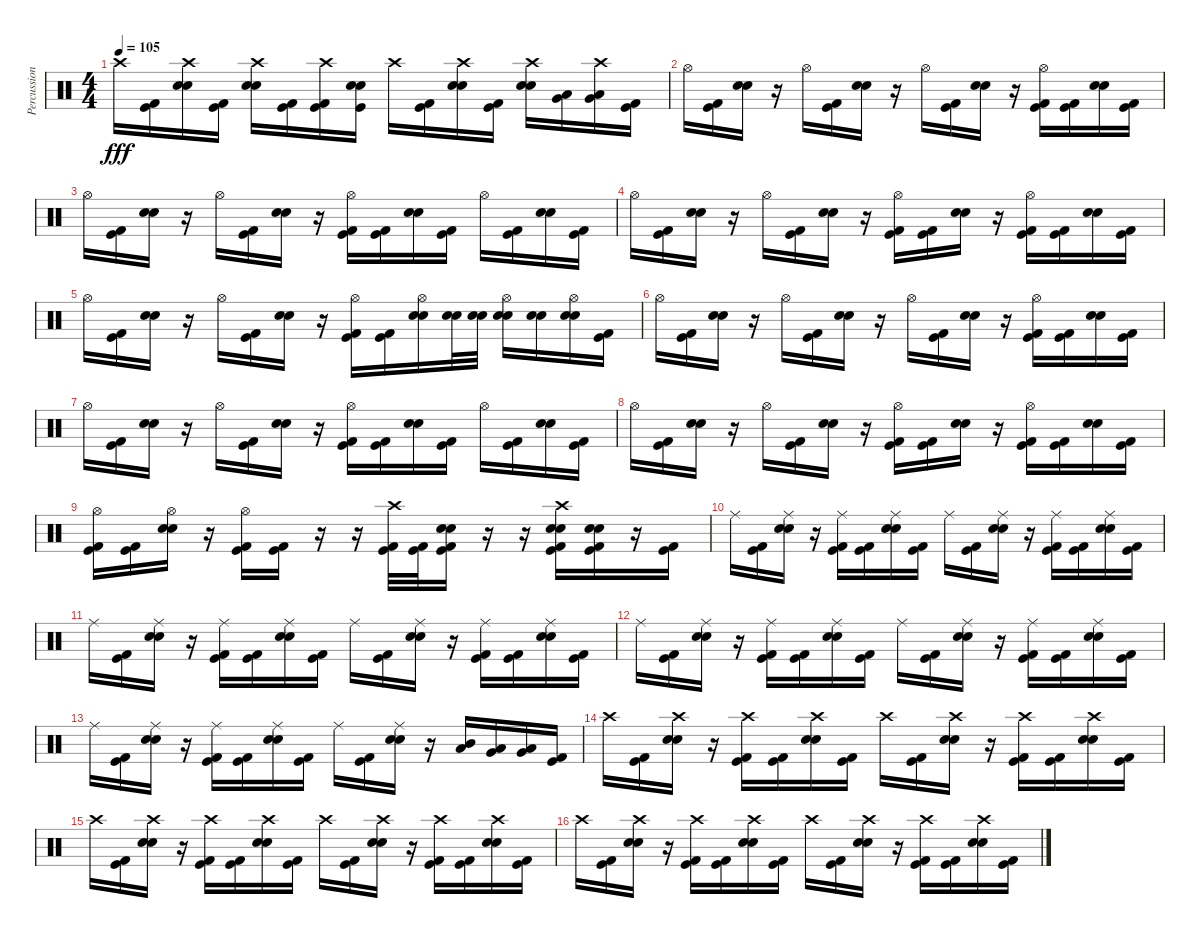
\track ("Percussion" "Percussion") {instrument percussion}
\staff {score}
\articulation defaults
\ts (4 4)
\tempo 105
\clef neutral
\ks c "Crash high (hit)".16{dy fff}
("Kick (hit)" "Kick (hit) 2").16 ("Crash high (hit)" "Snare (hit) 2" "Electric Snare (hit)").16 ("Kick (hit)" "Kick (hit) 2").16 ("Crash high (hit)" "Snare (hit) 2" "Electric Snare (hit)").16 ("Kick (hit)" "Kick (hit) 2").16 ("Kick (hit)" "Crash high (hit)" "Kick (hit) 2").16 ("Kick (hit)" "Snare (hit) 2" "Electric Snare (hit)").16 "Crash high (hit)".16 ("Kick (hit)" "Kick (hit) 2").16 ("Crash high (hit)" "Snare (hit) 2" "Electric Snare (hit)").16 ("Kick (hit)" "Kick (hit) 2").16 ("Crash high (hit)" "Snare (hit) 2" "Electric Snare (hit)").16 ("Low Tom (hit)" "Very Low Tom (hit)").16 ("Crash high (hit)" "Very Low Tom (hit)" "Low Floor Tom (hit)").16 ("Kick (hit)" "Kick (hit) 2").16 |
"Hi-Hat (open)".16 ("Kick (hit)" "Kick (hit) 2").16 ("Snare (hit) 2" "Electric Snare (hit)").16 r.16 "Hi-Hat (open)".16 ("Kick (hit)" "Kick (hit) 2").16 ("Snare (hit) 2" "Electric Snare (hit)").16 r.16 "Hi-Hat (open)".16 ("Kick (hit)" "Kick (hit) 2").16 ("Snare (hit) 2" "Electric Snare (hit)").16 r.16 ("Kick (hit)" "Hi-Hat (open)" "Kick (hit) 2").16 ("Kick (hit)" "Kick (hit) 2").16 ("Snare (hit) 2" "Electric Snare (hit)").16 ("Kick (hit)" "Kick (hit) 2").16 |
"Hi-Hat (open)".16 ("Kick (hit)" "Kick (hit) 2").16 ("Snare (hit) 2" "Electric Snare (hit)").16 r.16 "Hi-Hat (open)".16 ("Kick (hit)" "Kick (hit) 2").16 ("Snare (hit) 2" "Electric Snare (hit)").16 r.16 ("Kick (hit)" "Hi-Hat (open)" "Kick (hit) 2").16 ("Kick (hit)" "Kick (hit) 2").16 ("Snare (hit) 2" "Electric Snare (hit)").16 ("Kick (hit)" "Kick (hit) 2").16 "Hi-Hat (open)".16 ("Kick (hit)" "Kick (hit) 2").16 ("Snare (hit) 2" "Electric Snare (hit)").16 ("Kick (hit)" "Kick (hit) 2").16 |
"Hi-Hat (open)".16 ("Kick (hit)" "Kick (hit) 2").16 ("Snare (hit) 2" "Electric Snare (hit)").16 r.16 "Hi-Hat (open)".16 ("Kick (hit)" "Kick (hit) 2").16 ("Snare (hit) 2" "Electric Snare (hit)").16 r.16 ("Kick (hit)" "Hi-Hat (open)" "Kick (hit) 2").16 ("Kick (hit)" "Kick (hit) 2").16 ("Snare (hit) 2" "Electric Snare (hit)").16 r.16 ("Kick (hit)" "Hi-Hat (open)" "Kick (hit) 2").16 ("Kick (hit)" "Kick (hit) 2").16 ("Snare (hit) 2" "Electric Snare (hit)").16 ("Kick (hit)" "Kick (hit) 2").16 |
"Hi-Hat (open)".16 ("Kick (hit)" "Kick (hit) 2").16 ("Snare (hit) 2" "Electric Snare (hit)").16 r.16 "Hi-Hat (open)".16 ("Kick (hit)" "Kick (hit) 2").16 ("Snare (hit) 2" "Electric Snare (hit)").16 r.16 ("Kick (hit)" "Hi-Hat (open)" "Kick (hit) 2").16 ("Kick (hit)" "Kick (hit) 2").16 ("Snare (hit) 2" "Hi-Hat (open)" "Electric Snare (hit)").16 ("Snare (hit) 2" "Electric Snare (hit)").32 ("Snare (hit) 2" "Electric Snare (hit)").32 ("Hi-Hat (open)" "Snare (hit) 2" "Electric Snare (hit)").16 ("Snare (hit) 2" "Electric Snare (hit)").16 ("Snare (hit) 2" "Hi-Hat (open)" "Electric Snare (hit)").16 ("Kick (hit)" "Kick (hit) 2").16 |
"Hi-Hat (open)".16 ("Kick (hit)" "Kick (hit) 2").16 ("Snare (hit) 2" "Electric Snare (hit)").16 r.16 "Hi-Hat (open)".16 ("Kick (hit)" "Kick (hit) 2").16 ("Snare (hit) 2" "Electric Snare (hit)").16 r.16 "Hi-Hat (open)".16 ("Kick (hit)" "Kick (hit) 2").16 ("Snare (hit) 2" "Electric Snare (hit)").16 r.16 ("Kick (hit)" "Hi-Hat (open)" "Kick (hit) 2").16 ("Kick (hit)" "Kick (hit) 2").16 ("Snare (hit) 2" "Electric Snare (hit)").16 ("Kick (hit)" "Kick (hit) 2").16 |
"Hi-Hat (open)".16 ("Kick (hit)" "Kick (hit) 2").16 ("Snare (hit) 2" "Electric Snare (hit)").16 r.16 "Hi-Hat (open)".16 ("Kick (hit)" "Kick (hit) 2").16 ("Snare (hit) 2" "Electric Snare (hit)").16 r.16 ("Kick (hit)" "Hi-Hat (open)" "Kick (hit) 2").16 ("Kick (hit)" "Kick (hit) 2").16 ("Snare (hit) 2" "Electric Snare (hit)").16 ("Kick (hit)" "Kick (hit) 2").16 "Hi-Hat (open)".16 ("Kick (hit)" "Kick (hit) 2").16 ("Snare (hit) 2" "Electric Snare (hit)").16 ("Kick (hit)" "Kick (hit) 2").16 |
"Hi-Hat (open)".16 ("Kick (hit)" "Kick (hit) 2").16 ("Snare (hit) 2" "Electric Snare (hit)").16 r.16 "Hi-Hat (open)".16 ("Kick (hit)" "Kick (hit) 2").16 ("Snare (hit) 2" "Electric Snare (hit)").16 r.16 ("Kick (hit)" "Hi-Hat (open)" "Kick (hit) 2").16 ("Kick (hit)" "Kick (hit) 2").16 ("Snare (hit) 2" "Electric Snare (hit)").16 r.16 ("Kick (hit)" "Hi-Hat (open)" "Kick (hit) 2").16 ("Kick (hit)" "Kick (hit) 2").16 ("Snare (hit) 2" "Electric Snare (hit)").16 ("Kick (hit)" "Kick (hit) 2").16 |
("Kick (hit)" "Hi-Hat (open)" "Kick (hit) 2").16 ("Kick (hit)" "Kick (hit) 2").16 ("Snare (hit) 2" "Hi-Hat (open)" "Electric Snare (hit)").16 r.16 ("Kick (hit)" "Hi-Hat (open)" "Kick (hit) 2").16 ("Kick (hit)" "Kick (hit) 2").16 r.16 r.16 ("Kick (hit)" "Crash high (hit)" "Kick (hit) 2").32 ("Kick (hit)" "Kick (hit) 2").32 ("Kick (hit)" "Snare (hit) 2" "Electric Snare (hit)" "Kick (hit) 2").16 r.16 r.16 ("Kick (hit)" "Crash high (hit)" "Snare (hit) 2" "Electric Snare (hit)" "Kick (hit) 2").16 ("Kick (hit)" "Snare (hit) 2" "Electric Snare (hit)" "Kick (hit) 2").16 r.16 ("Kick (hit)" "Kick (hit) 2").16 |
"Ride (middle)".16 ("Kick (hit)" "Kick (hit) 2").16 ("Snare (hit) 2" "Ride (middle)" "Electric Snare (hit)").16 r.16 ("Kick (hit)" "Ride (middle)" "Kick (hit) 2").16 ("Kick (hit)" "Kick (hit) 2").16 ("Snare (hit) 2" "Ride (middle)" "Electric Snare (hit)").16 ("Kick (hit)" "Kick (hit) 2").16 "Ride (middle)".16 ("Kick (hit)" "Kick (hit) 2").16 ("Snare (hit) 2" "Ride (middle)" "Electric Snare (hit)").16 r.16 ("Kick (hit)" "Ride (middle)" "Kick (hit) 2").16 ("Kick (hit)" "Kick (hit) 2").16 ("Snare (hit) 2" "Ride (middle)" "Electric Snare (hit)").16 ("Kick (hit)" "Kick (hit) 2").16 |
"Ride (middle)".16 ("Kick (hit)" "Kick (hit) 2").16 ("Snare (hit) 2" "Ride (middle)" "Electric Snare (hit)").16 r.16 ("Kick (hit)" "Ride (middle)" "Kick (hit) 2").16 ("Kick (hit)" "Kick (hit) 2").16 ("Snare (hit) 2" "Ride (middle)" "Electric Snare (hit)").16 ("Kick (hit)" "Kick (hit) 2").16 "Ride (middle)".16 ("Kick (hit)" "Kick (hit) 2").16 ("Snare (hit) 2" "Ride (middle)" "Electric Snare (hit)").16 r.16 ("Kick (hit)" "Ride (middle)" "Kick (hit) 2").16 ("Kick (hit)" "Kick (hit) 2").16 ("Snare (hit) 2" "Ride (middle)" "Electric Snare (hit)").16 ("Kick (hit)" "Kick (hit) 2").16 |
"Ride (middle)".16 ("Kick (hit)" "Kick (hit) 2").16 ("Snare (hit) 2" "Ride (middle)" "Electric Snare (hit)").16 r.16 ("Kick (hit)" "Ride (middle)" "Kick (hit) 2").16 ("Kick (hit)" "Kick (hit) 2").16 ("Snare (hit) 2" "Ride (middle)" "Electric Snare (hit)").16 ("Kick (hit)" "Kick (hit) 2").16 "Ride (middle)".16 ("Kick (hit)" "Kick (hit) 2").16 ("Snare (hit) 2" "Ride (middle)" "Electric Snare (hit)").16 r.16 ("Kick (hit)" "Ride (middle)" "Kick (hit) 2").16 ("Kick (hit)" "Kick (hit) 2").16 ("Snare (hit) 2" "Ride (middle)" "Electric Snare (hit)").16 ("Kick (hit)" "Kick (hit) 2").16 |
"Ride (middle)".16 ("Kick (hit)" "Kick (hit) 2").16 ("Snare (hit) 2" "Ride (middle)" "Electric Snare (hit)").16 r.16 ("Kick (hit)" "Ride (middle)" "Kick (hit) 2").16 ("Kick (hit)" "Kick (hit) 2").16 ("Snare (hit) 2" "Ride (middle)" "Electric Snare (hit)").16 ("Kick (hit)" "Kick (hit) 2").16 "Ride (middle)".16 ("Kick (hit)" "Kick (hit) 2").16 ("Snare (hit) 2" "Ride (middle)" "Electric Snare (hit)").16 r.16 ("Mid Tom (hit)" "Low Tom (hit)").16 ("Low Tom (hit)" "Very Low Tom (hit)").16 ("Very Low Tom (hit)" "Low Floor Tom (hit)").16 ("Kick (hit)" "Kick (hit) 2").16 |
"Crash high (hit)".16 ("Kick (hit)" "Kick (hit) 2").16 ("Snare (hit) 2" "Crash high (hit)" "Electric Snare (hit)").16 r.16 ("Kick (hit)" "Crash high (hit)" "Kick (hit) 2").16 ("Kick (hit)" "Kick (hit) 2").16 ("Snare (hit) 2" "Crash high (hit)" "Electric Snare (hit)").16 ("Kick (hit)" "Kick (hit) 2").16 "Crash high (hit)".16 ("Kick (hit)" "Kick (hit) 2").16 ("Snare (hit) 2" "Crash high (hit)" "Electric Snare (hit)").16 r.16 ("Kick (hit)" "Crash high (hit)" "Kick (hit) 2").16 ("Kick (hit)" "Kick (hit) 2").16 ("Snare (hit) 2" "Crash high (hit)" "Electric Snare (hit)").16 ("Kick (hit)" "Kick (hit) 2").16 |
"Crash high (hit)".16 ("Kick (hit)" "Kick (hit) 2").16 ("Snare (hit) 2" "Crash high (hit)" "Electric Snare (hit)").16 r.16 ("Kick (hit)" "Crash high (hit)" "Kick (hit) 2").16 ("Kick (hit)" "Kick (hit) 2").16 ("Snare (hit) 2" "Crash high (hit)" "Electric Snare (hit)").16 ("Kick (hit)" "Kick (hit) 2").16 "Crash high (hit)".16 ("Kick (hit)" "Kick (hit) 2").16 ("Snare (hit) 2" "Crash high (hit)" "Electric Snare (hit)").16 r.16 ("Kick (hit)" "Crash high (hit)" "Kick (hit) 2").16 ("Kick (hit)" "Kick (hit) 2").16 ("Snare (hit) 2" "Crash high (hit)" "Electric Snare (hit)").16 ("Kick (hit)" "Kick (hit) 2").16 |
"Crash high (hit)".16 ("Kick (hit)" "Kick (hit) 2").16 ("Snare (hit) 2" "Crash high (hit)" "Electric Snare (hit)").16 r.16 ("Kick (hit)" "Crash high (hit)" "Kick (hit) 2").16 ("Kick (hit)" "Kick (hit) 2").16 ("Snare (hit) 2" "Crash high (hit)" "Electric Snare (hit)").16 ("Kick (hit)" "Kick (hit) 2").16 "Crash high (hit)".16 ("Kick (hit)" "Kick (hit) 2").16 ("Snare (hit) 2" "Crash high (hit)" "Electric Snare (hit)").16 r.16 ("Kick (hit)" "Crash high (hit)" "Kick (hit) 2").16 ("Kick (hit)" "Kick (hit) 2").16 ("Snare (hit) 2" "Crash high (hit)" "Electric Snare (hit)").16 ("Kick (hit)" "Kick (hit) 2").16
